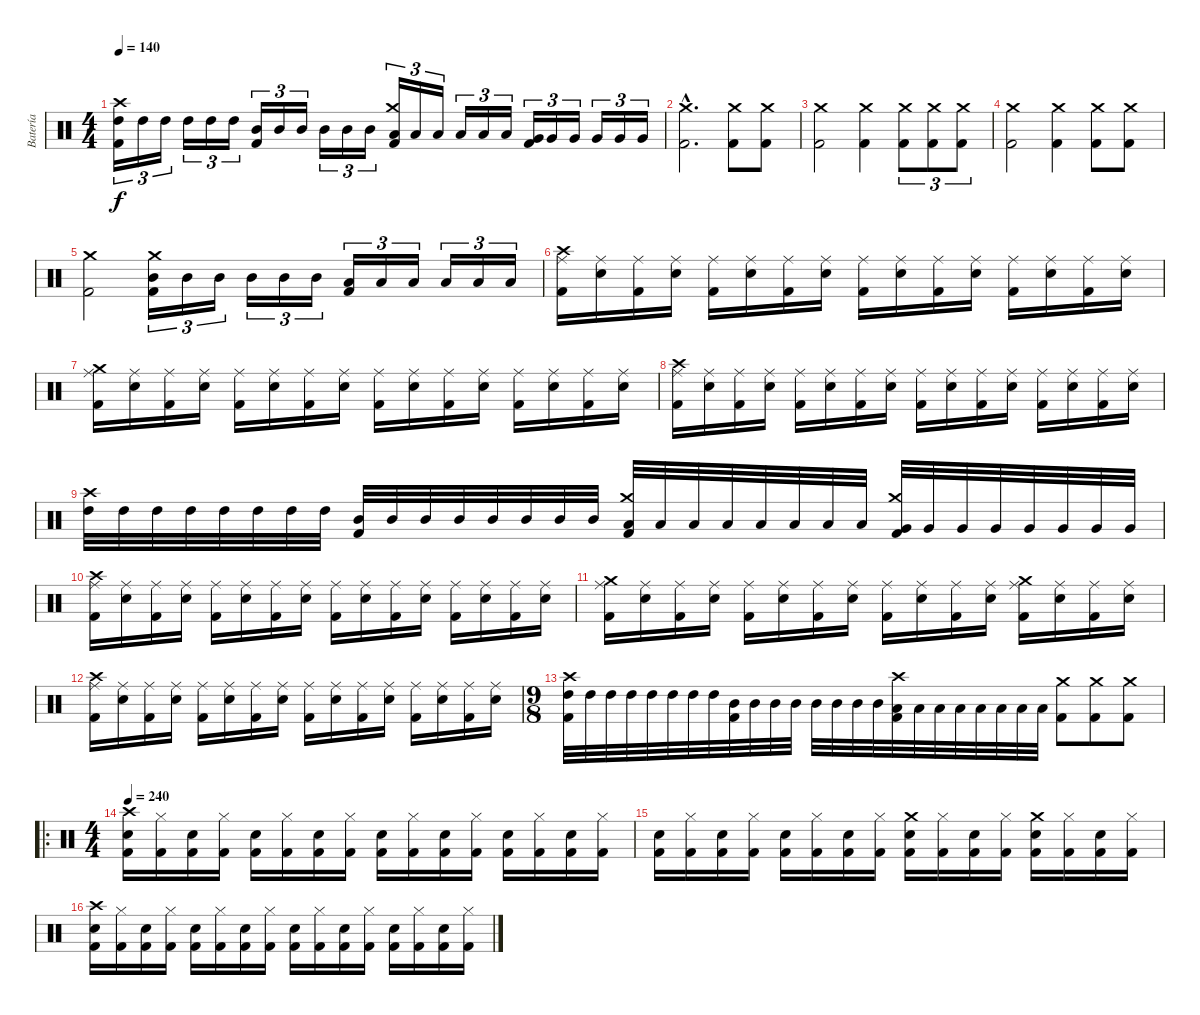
\track ("Batería" "Batería") {instrument percussion}
\staff {score}
\articulation defaults
\ts (4 4)
\tempo 140
\clef neutral
\ks c
("Crash high (hit)" "Kick (hit) 2" "High Tom (hit)").16{tu (3 2) dy f} "High Tom (hit)".16{tu (3 2)} "High Tom (hit)".16{tu (3 2)} "High Tom (hit)".16{tu (3 2)} "High Tom (hit)".16{tu (3 2)} "High Tom (hit)".16{tu (3 2)} ("Kick (hit) 2" "Mid Tom (hit)").16{tu (3 2)} "Mid Tom (hit)".16{tu (3 2)} "Mid Tom (hit)".16{tu (3 2)} "Mid Tom (hit)".16{tu (3 2)} "Mid Tom (hit)".16{tu (3 2)} "Mid Tom (hit)".16{tu (3 2)} ("Crash medium (hit)" "Kick (hit) 2" "Low Tom (hit)").16{tu (3 2)} "Low Tom (hit)".16{tu (3 2)} "Low Tom (hit)".16{tu (3 2)} "Low Tom (hit)".16{tu (3 2)} "Low Tom (hit)".16{tu (3 2)} "Low Tom (hit)".16{tu (3 2)} ("Kick (hit) 2" "Very Low Tom (hit)").16{tu (3 2)} "Very Low Tom (hit)".16{tu (3 2)} "Very Low Tom (hit)".16{tu (3 2)} "Very Low Tom (hit)".16{tu (3 2)} "Very Low Tom (hit)".16{tu (3 2)} "Very Low Tom (hit)".16{tu (3 2)} |
("Crash medium (hit)"{hac} "Kick (hit) 2"{hac}).2{d} ("Crash medium (hit)" "Kick (hit) 2").8 ("Crash medium (hit)" "Kick (hit) 2").8 |
("Crash medium (hit)" "Kick (hit) 2").2 ("Crash medium (hit)" "Kick (hit) 2").4 ("Crash medium (hit)" "Kick (hit) 2").8{tu (3 2)} ("Crash medium (hit)" "Kick (hit) 2").8{tu (3 2)} ("Crash medium (hit)" "Kick (hit) 2").8{tu (3 2)} |
("Crash medium (hit)" "Kick (hit) 2").2 ("Crash medium (hit)" "Kick (hit) 2").4 ("Crash medium (hit)" "Kick (hit) 2").8 ("Crash medium (hit)" "Kick (hit) 2").8 |
("Crash medium (hit)" "Kick (hit) 2").2 ("Crash medium (hit)" "Kick (hit) 2" "Mid Tom (hit)").16{tu (3 2)} "Mid Tom (hit)".16{tu (3 2)} "Mid Tom (hit)".16{tu (3 2)} "Mid Tom (hit)".16{tu (3 2)} "Mid Tom (hit)".16{tu (3 2)} "Mid Tom (hit)".16{tu (3 2)} ("Kick (hit) 2" "Low Tom (hit)").16{tu (3 2)} "Low Tom (hit)".16{tu (3 2)} "Low Tom (hit)".16{tu (3 2)} "Low Tom (hit)".16{tu (3 2)} "Low Tom (hit)".16{tu (3 2)} "Low Tom (hit)".16{tu (3 2)} |
("Crash high (hit)" "Ride (middle)" "Kick (hit) 2").16 ("Ride (middle)" "Electric Snare (hit)").16 ("Ride (middle)" "Kick (hit) 2").16 ("Ride (middle)" "Electric Snare (hit)").16 ("Ride (middle)" "Kick (hit) 2").16 ("Ride (middle)" "Electric Snare (hit)").16 ("Ride (middle)" "Kick (hit) 2").16 ("Ride (middle)" "Electric Snare (hit)").16 ("Ride (middle)" "Kick (hit) 2").16 ("Ride (middle)" "Electric Snare (hit)").16 ("Ride (middle)" "Kick (hit) 2").16 ("Ride (middle)" "Electric Snare (hit)").16 ("Ride (middle)" "Kick (hit) 2").16 ("Ride (middle)" "Electric Snare (hit)").16 ("Ride (middle)" "Kick (hit) 2").16 ("Ride (middle)" "Electric Snare (hit)").16 |
("Crash medium (hit)" "Ride (middle)" "Kick (hit) 2").16 ("Ride (middle)" "Electric Snare (hit)").16 ("Ride (middle)" "Kick (hit) 2").16 ("Ride (middle)" "Electric Snare (hit)").16 ("Ride (middle)" "Kick (hit) 2").16 ("Ride (middle)" "Electric Snare (hit)").16 ("Ride (middle)" "Kick (hit) 2").16 ("Ride (middle)" "Electric Snare (hit)").16 ("Ride (middle)" "Kick (hit) 2").16 ("Ride (middle)" "Electric Snare (hit)").16 ("Ride (middle)" "Kick (hit) 2").16 ("Ride (middle)" "Electric Snare (hit)").16 ("Ride (middle)" "Kick (hit) 2").16 ("Ride (middle)" "Electric Snare (hit)").16 ("Ride (middle)" "Kick (hit) 2").16 ("Ride (middle)" "Electric Snare (hit)").16 |
("Crash high (hit)" "Ride (middle)" "Kick (hit) 2").16 ("Ride (middle)" "Electric Snare (hit)").16 ("Ride (middle)" "Kick (hit) 2").16 ("Ride (middle)" "Electric Snare (hit)").16 ("Ride (middle)" "Kick (hit) 2").16 ("Ride (middle)" "Electric Snare (hit)").16 ("Ride (middle)" "Kick (hit) 2").16 ("Ride (middle)" "Electric Snare (hit)").16 ("Ride (middle)" "Kick (hit) 2").16 ("Ride (middle)" "Electric Snare (hit)").16 ("Ride (middle)" "Kick (hit) 2").16 ("Ride (middle)" "Electric Snare (hit)").16 ("Ride (middle)" "Kick (hit) 2").16 ("Ride (middle)" "Electric Snare (hit)").16 ("Ride (middle)" "Kick (hit) 2").16 ("Ride (middle)" "Electric Snare (hit)").16 |
("Crash high (hit)" "High Tom (hit)").32 "High Tom (hit)".32 "High Tom (hit)".32 "High Tom (hit)".32 "High Tom (hit)".32 "High Tom (hit)".32 "High Tom (hit)".32 "High Tom (hit)".32 ("Kick (hit) 2" "Mid Tom (hit)").32 "Mid Tom (hit)".32 "Mid Tom (hit)".32 "Mid Tom (hit)".32 "Mid Tom (hit)".32 "Mid Tom (hit)".32 "Mid Tom (hit)".32 "Mid Tom (hit)".32 ("Crash medium (hit)" "Kick (hit) 2" "Low Tom (hit)").32 "Low Tom (hit)".32 "Low Tom (hit)".32 "Low Tom (hit)".32 "Low Tom (hit)".32 "Low Tom (hit)".32 "Low Tom (hit)".32 "Low Tom (hit)".32 ("Crash medium (hit)" "Kick (hit) 2" "Very Low Tom (hit)").32 "Very Low Tom (hit)".32 "Very Low Tom (hit)".32 "Very Low Tom (hit)".32 "Very Low Tom (hit)".32 "Very Low Tom (hit)".32 "Very Low Tom (hit)".32 "Very Low Tom (hit)".32 |
("Crash high (hit)" "Ride (middle)" "Kick (hit) 2").16 ("Ride (middle)" "Electric Snare (hit)").16 ("Ride (middle)" "Kick (hit) 2").16 ("Ride (middle)" "Electric Snare (hit)").16 ("Ride (middle)" "Kick (hit) 2").16 ("Ride (middle)" "Electric Snare (hit)").16 ("Ride (middle)" "Kick (hit) 2").16 ("Ride (middle)" "Electric Snare (hit)").16 ("Ride (middle)" "Kick (hit) 2").16 ("Ride (middle)" "Electric Snare (hit)").16 ("Ride (middle)" "Kick (hit) 2").16 ("Ride (middle)" "Electric Snare (hit)").16 ("Ride (middle)" "Kick (hit) 2").16 ("Ride (middle)" "Electric Snare (hit)").16 ("Ride (middle)" "Kick (hit) 2").16 ("Ride (middle)" "Electric Snare (hit)").16 |
("Crash medium (hit)" "Ride (middle)" "Kick (hit) 2").16 ("Ride (middle)" "Electric Snare (hit)").16 ("Ride (middle)" "Kick (hit) 2").16 ("Ride (middle)" "Electric Snare (hit)").16 ("Ride (middle)" "Kick (hit) 2").16 ("Ride (middle)" "Electric Snare (hit)").16 ("Ride (middle)" "Kick (hit) 2").16 ("Ride (middle)" "Electric Snare (hit)").16 ("Ride (middle)" "Kick (hit) 2").16 ("Ride (middle)" "Electric Snare (hit)").16 ("Ride (middle)" "Kick (hit) 2").16 ("Ride (middle)" "Electric Snare (hit)").16 ("Crash medium (hit)" "Ride (middle)" "Kick (hit) 2").16 ("Ride (middle)" "Electric Snare (hit)").16 ("Ride (middle)" "Kick (hit) 2").16 ("Ride (middle)" "Electric Snare (hit)").16 |
("Crash high (hit)" "Ride (middle)" "Kick (hit) 2").16 ("Ride (middle)" "Electric Snare (hit)").16 ("Ride (middle)" "Kick (hit) 2").16 ("Ride (middle)" "Electric Snare (hit)").16 ("Ride (middle)" "Kick (hit) 2").16 ("Ride (middle)" "Electric Snare (hit)").16 ("Ride (middle)" "Kick (hit) 2").16 ("Ride (middle)" "Electric Snare (hit)").16 ("Ride (middle)" "Kick (hit) 2").16 ("Ride (middle)" "Electric Snare (hit)").16 ("Ride (middle)" "Kick (hit) 2").16 ("Ride (middle)" "Electric Snare (hit)").16 ("Ride (middle)" "Kick (hit) 2").16 ("Ride (middle)" "Electric Snare (hit)").16 ("Ride (middle)" "Kick (hit) 2").16 ("Ride (middle)" "Electric Snare (hit)").16 |
\ts (9 8)
("Crash high (hit)" "Kick (hit) 2" "High Tom (hit)").32 "High Tom (hit)".32 "High Tom (hit)".32 "High Tom (hit)".32 "High Tom (hit)".32 "High Tom (hit)".32 "High Tom (hit)".32 "High Tom (hit)".32 ("Kick (hit) 2" "Mid Tom (hit)").32 "Mid Tom (hit)".32 "Mid Tom (hit)".32 "Mid Tom (hit)".32 "Mid Tom (hit)".32 "Mid Tom (hit)".32 "Mid Tom (hit)".32 "Mid Tom (hit)".32 ("Crash high (hit)" "Kick (hit) 2" "Low Tom (hit)").32 "Low Tom (hit)".32 "Low Tom (hit)".32 "Low Tom (hit)".32 "Low Tom (hit)".32 "Low Tom (hit)".32 "Low Tom (hit)".32 "Low Tom (hit)".32 ("Crash medium (hit)" "Kick (hit) 2").8 ("Crash medium (hit)" "Kick (hit) 2").8 ("Crash medium (hit)" "Kick (hit) 2").8 |
\ro
\ts (4 4)
\tempo 240
("Crash high (hit)" "Kick (hit) 2" "Electric Snare (hit)").16 ("Kick (hit) 2" "Hi-Hat (closed)").16 ("Kick (hit) 2" "Electric Snare (hit)").16 ("Kick (hit) 2" "Hi-Hat (closed)").16 ("Kick (hit) 2" "Electric Snare (hit)").16 ("Kick (hit) 2" "Hi-Hat (closed)").16 ("Kick (hit) 2" "Electric Snare (hit)").16 ("Kick (hit) 2" "Hi-Hat (closed)").16 ("Kick (hit) 2" "Electric Snare (hit)").16 ("Kick (hit) 2" "Hi-Hat (closed)").16 ("Kick (hit) 2" "Electric Snare (hit)").16 ("Kick (hit) 2" "Hi-Hat (closed)").16 ("Kick (hit) 2" "Electric Snare (hit)").16 ("Kick (hit) 2" "Hi-Hat (closed)").16 ("Kick (hit) 2" "Electric Snare (hit)").16 ("Kick (hit) 2" "Hi-Hat (closed)").16 |
("Kick (hit) 2" "Electric Snare (hit)").16 ("Kick (hit) 2" "Hi-Hat (closed)").16 ("Kick (hit) 2" "Electric Snare (hit)").16 ("Kick (hit) 2" "Hi-Hat (closed)").16 ("Kick (hit) 2" "Electric Snare (hit)").16 ("Kick (hit) 2" "Hi-Hat (closed)").16 ("Kick (hit) 2" "Electric Snare (hit)").16 ("Kick (hit) 2" "Hi-Hat (closed)").16 ("Crash medium (hit)" "Kick (hit) 2" "Electric Snare (hit)").16 ("Kick (hit) 2" "Hi-Hat (closed)").16 ("Kick (hit) 2" "Electric Snare (hit)").16 ("Kick (hit) 2" "Hi-Hat (closed)").16 ("Crash medium (hit)" "Kick (hit) 2" "Electric Snare (hit)").16 ("Kick (hit) 2" "Hi-Hat (closed)").16 ("Kick (hit) 2" "Electric Snare (hit)").16 ("Kick (hit) 2" "Hi-Hat (closed)").16 |
("Crash high (hit)" "Kick (hit) 2" "Electric Snare (hit)").16 ("Kick (hit) 2" "Hi-Hat (closed)").16 ("Kick (hit) 2" "Electric Snare (hit)").16 ("Kick (hit) 2" "Hi-Hat (closed)").16 ("Kick (hit) 2" "Electric Snare (hit)").16 ("Kick (hit) 2" "Hi-Hat (closed)").16 ("Kick (hit) 2" "Electric Snare (hit)").16 ("Kick (hit) 2" "Hi-Hat (closed)").16 ("Kick (hit) 2" "Electric Snare (hit)").16 ("Kick (hit) 2" "Hi-Hat (closed)").16 ("Kick (hit) 2" "Electric Snare (hit)").16 ("Kick (hit) 2" "Hi-Hat (closed)").16 ("Kick (hit) 2" "Electric Snare (hit)").16 ("Kick (hit) 2" "Hi-Hat (closed)").16 ("Kick (hit) 2" "Electric Snare (hit)").16 ("Kick (hit) 2" "Hi-Hat (closed)").16
